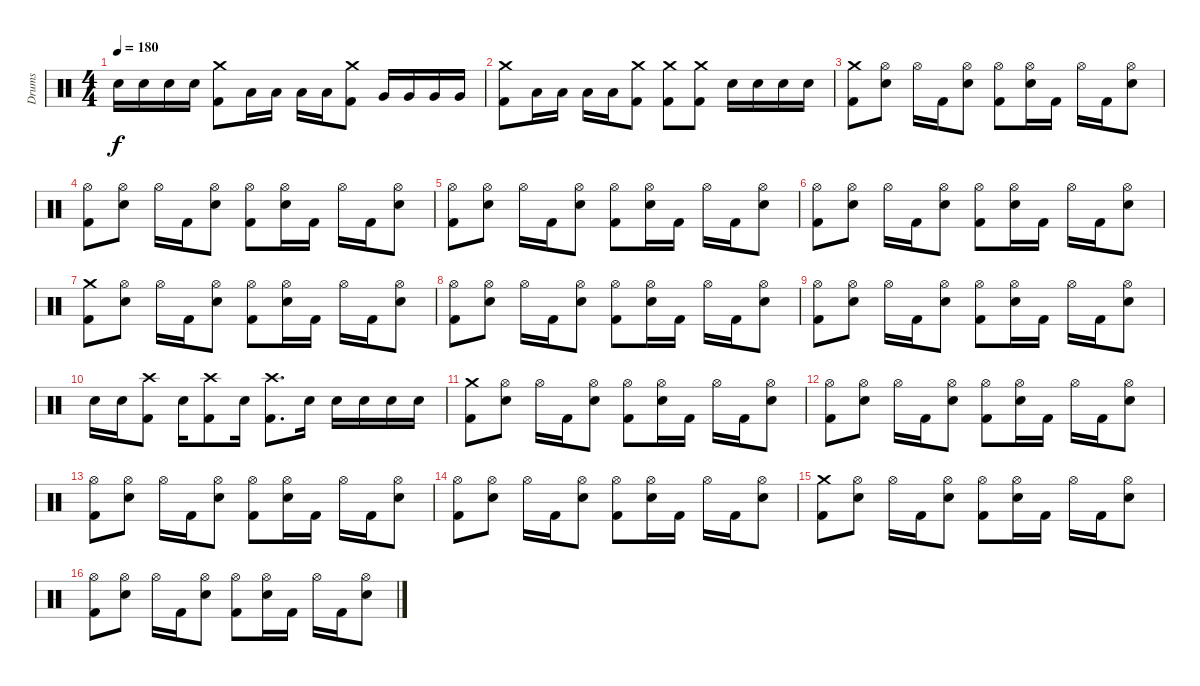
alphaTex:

\track ("Drums" "Drums") {instrument percussion}
\staff {score}
\articulation defaults
\ts (4 4)
\tempo 180
\clef neutral
\ks c "Snare (hit) 2".16{dy f} "Snare (hit) 2".16 "Snare (hit) 2".16 "Snare (hit) 2".16
("Crash medium (hit)" "Kick (hit) 2").8 "Low Tom (hit)".16 "Low Tom (hit)".16 "Low Tom (hit)".16 "Low Tom (hit)".16 ("Crash medium (hit)" "Kick (hit) 2").8 "Very Low Tom (hit)".16 "Very Low Tom (hit)".16 "Very Low Tom (hit)".16 "Very Low Tom (hit)".16 |
("Crash medium (hit)" "Kick (hit) 2").8 "Low Floor Tom (hit)".16 "Low Floor Tom (hit)".16 "Low Floor Tom (hit)".16 "Low Floor Tom (hit)".16 ("Crash medium (hit)" "Kick (hit) 2").8 ("Crash medium (hit)" "Kick (hit) 2").8 ("Crash medium (hit)" "Kick (hit) 2").8 "Snare (hit) 2".16 "Snare (hit) 2".16 "Snare (hit) 2".16 "Snare (hit) 2".16 |
("Crash medium (hit)" "Kick (hit) 2").8 ("Hi-Hat (open)" "Snare (hit) 2").8 "Hi-Hat (open)".16 "Kick (hit) 2".16 ("Hi-Hat (open)" "Snare (hit) 2").8 ("Hi-Hat (open)" "Kick (hit) 2").8 ("Hi-Hat (open)" "Snare (hit) 2").16 "Kick (hit) 2".16 "Hi-Hat (open)".16 "Kick (hit) 2".16 ("Hi-Hat (open)" "Snare (hit) 2").8 |
("Hi-Hat (open)" "Kick (hit) 2").8 ("Hi-Hat (open)" "Snare (hit) 2").8 "Hi-Hat (open)".16 "Kick (hit) 2".16 ("Hi-Hat (open)" "Snare (hit) 2").8 ("Hi-Hat (open)" "Kick (hit) 2").8 ("Hi-Hat (open)" "Snare (hit) 2").16 "Kick (hit) 2".16 "Hi-Hat (open)".16 "Kick (hit) 2".16 ("Hi-Hat (open)" "Snare (hit) 2").8 |
("Hi-Hat (open)" "Kick (hit) 2").8 ("Hi-Hat (open)" "Snare (hit) 2").8 "Hi-Hat (open)".16 "Kick (hit) 2".16 ("Hi-Hat (open)" "Snare (hit) 2").8 ("Hi-Hat (open)" "Kick (hit) 2").8 ("Hi-Hat (open)" "Snare (hit) 2").16 "Kick (hit) 2".16 "Hi-Hat (open)".16 "Kick (hit) 2".16 ("Hi-Hat (open)" "Snare (hit) 2").8 |
("Hi-Hat (open)" "Kick (hit) 2").8 ("Hi-Hat (open)" "Snare (hit) 2").8 "Hi-Hat (open)".16 "Kick (hit) 2".16 ("Hi-Hat (open)" "Snare (hit) 2").8 ("Hi-Hat (open)" "Kick (hit) 2").8 ("Hi-Hat (open)" "Snare (hit) 2").16 "Kick (hit) 2".16 "Hi-Hat (open)".16 "Kick (hit) 2".16 ("Hi-Hat (open)" "Snare (hit) 2").8 |
("Crash medium (hit)" "Kick (hit) 2").8 ("Hi-Hat (open)" "Snare (hit) 2").8 "Hi-Hat (open)".16 "Kick (hit) 2".16 ("Hi-Hat (open)" "Snare (hit) 2").8 ("Hi-Hat (open)" "Kick (hit) 2").8 ("Hi-Hat (open)" "Snare (hit) 2").16 "Kick (hit) 2".16 "Hi-Hat (open)".16 "Kick (hit) 2".16 ("Hi-Hat (open)" "Snare (hit) 2").8 |
("Hi-Hat (open)" "Kick (hit) 2").8 ("Hi-Hat (open)" "Snare (hit) 2").8 "Hi-Hat (open)".16 "Kick (hit) 2".16 ("Hi-Hat (open)" "Snare (hit) 2").8 ("Hi-Hat (open)" "Kick (hit) 2").8 ("Hi-Hat (open)" "Snare (hit) 2").16 "Kick (hit) 2".16 "Hi-Hat (open)".16 "Kick (hit) 2".16 ("Hi-Hat (open)" "Snare (hit) 2").8 |
("Hi-Hat (open)" "Kick (hit) 2").8 ("Hi-Hat (open)" "Snare (hit) 2").8 "Hi-Hat (open)".16 "Kick (hit) 2".16 ("Hi-Hat (open)" "Snare (hit) 2").8 ("Hi-Hat (open)" "Kick (hit) 2").8 ("Hi-Hat (open)" "Snare (hit) 2").16 "Kick (hit) 2".16 "Hi-Hat (open)".16 "Kick (hit) 2".16 ("Hi-Hat (open)" "Snare (hit) 2").8 |
"Snare (hit) 2".16 "Snare (hit) 2".16 ("Crash high (hit)" "Kick (hit) 2").8 "Snare (hit) 2".16 ("Crash high (hit)" "Kick (hit) 2").8 "Snare (hit) 2".16 ("Crash high (hit)" "Kick (hit) 2").8{d} "Snare (hit) 2".16 "Snare (hit) 2".16 "Snare (hit) 2".16 "Snare (hit) 2".16 "Snare (hit) 2".16 |
("Crash medium (hit)" "Kick (hit) 2").8 ("Hi-Hat (open)" "Snare (hit) 2").8 "Hi-Hat (open)".16 "Kick (hit) 2".16 ("Hi-Hat (open)" "Snare (hit) 2").8 ("Hi-Hat (open)" "Kick (hit) 2").8 ("Hi-Hat (open)" "Snare (hit) 2").16 "Kick (hit) 2".16 "Hi-Hat (open)".16 "Kick (hit) 2".16 ("Hi-Hat (open)" "Snare (hit) 2").8 |
("Hi-Hat (open)" "Kick (hit) 2").8 ("Hi-Hat (open)" "Snare (hit) 2").8 "Hi-Hat (open)".16 "Kick (hit) 2".16 ("Hi-Hat (open)" "Snare (hit) 2").8 ("Hi-Hat (open)" "Kick (hit) 2").8 ("Hi-Hat (open)" "Snare (hit) 2").16 "Kick (hit) 2".16 "Hi-Hat (open)".16 "Kick (hit) 2".16 ("Hi-Hat (open)" "Snare (hit) 2").8 |
("Hi-Hat (open)" "Kick (hit) 2").8 ("Hi-Hat (open)" "Snare (hit) 2").8 "Hi-Hat (open)".16 "Kick (hit) 2".16 ("Hi-Hat (open)" "Snare (hit) 2").8 ("Hi-Hat (open)" "Kick (hit) 2").8 ("Hi-Hat (open)" "Snare (hit) 2").16 "Kick (hit) 2".16 "Hi-Hat (open)".16 "Kick (hit) 2".16 ("Hi-Hat (open)" "Snare (hit) 2").8 |
("Hi-Hat (open)" "Kick (hit) 2").8 ("Hi-Hat (open)" "Snare (hit) 2").8 "Hi-Hat (open)".16 "Kick (hit) 2".16 ("Hi-Hat (open)" "Snare (hit) 2").8 ("Hi-Hat (open)" "Kick (hit) 2").8 ("Hi-Hat (open)" "Snare (hit) 2").16 "Kick (hit) 2".16 "Hi-Hat (open)".16 "Kick (hit) 2".16 ("Hi-Hat (open)" "Snare (hit) 2").8 |
("Crash medium (hit)" "Kick (hit) 2").8 ("Hi-Hat (open)" "Snare (hit) 2").8 "Hi-Hat (open)".16 "Kick (hit) 2".16 ("Hi-Hat (open)" "Snare (hit) 2").8 ("Hi-Hat (open)" "Kick (hit) 2").8 ("Hi-Hat (open)" "Snare (hit) 2").16 "Kick (hit) 2".16 "Hi-Hat (open)".16 "Kick (hit) 2".16 ("Hi-Hat (open)" "Snare (hit) 2").8 |
("Hi-Hat (open)" "Kick (hit) 2").8 ("Hi-Hat (open)" "Snare (hit) 2").8 "Hi-Hat (open)".16 "Kick (hit) 2".16 ("Hi-Hat (open)" "Snare (hit) 2").8 ("Hi-Hat (open)" "Kick (hit) 2").8 ("Hi-Hat (open)" "Snare (hit) 2").16 "Kick (hit) 2".16 "Hi-Hat (open)".16 "Kick (hit) 2".16 ("Hi-Hat (open)" "Snare (hit) 2").8
